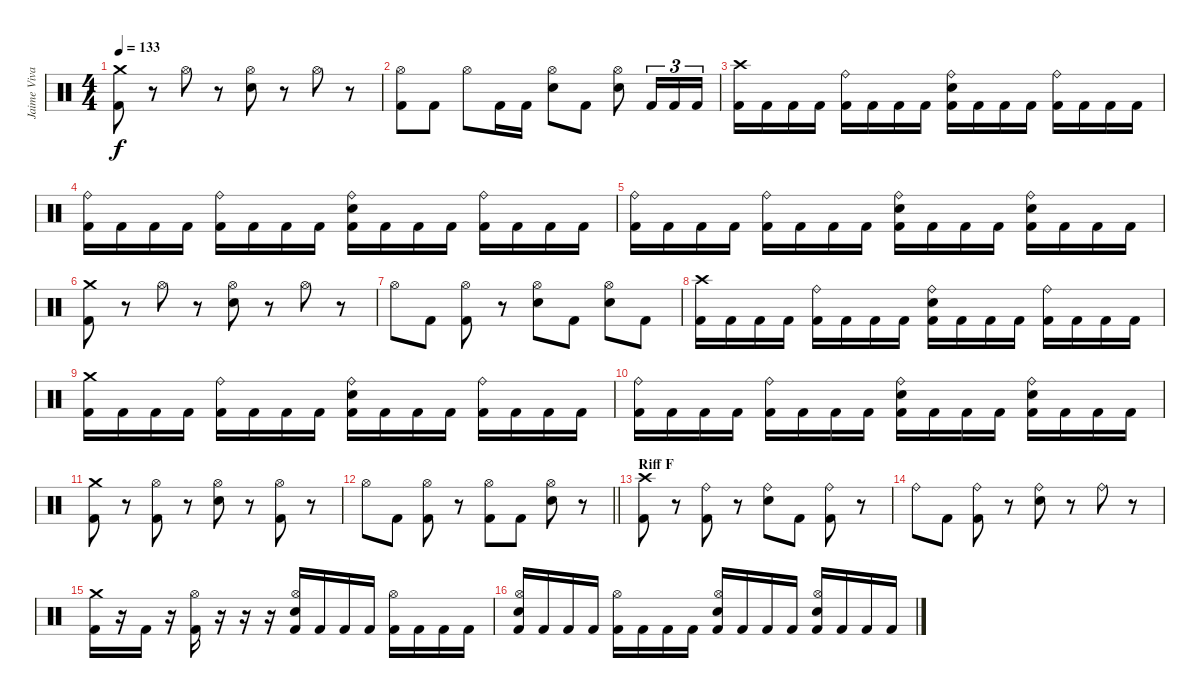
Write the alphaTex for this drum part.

\track ("Jaime Vivar" "Jaime Viva") {instrument percussion}
\staff {score}
\articulation defaults
\ts (4 4)
\tempo 133
\clef neutral
\ks c
("Crash medium (hit)" "Kick (hit) 2").8{dy f} r.8 "Hi-Hat (open)".8 r.8 ("Hi-Hat (open)" "Snare (hit) 2").8 r.8 "Hi-Hat (open)".8 r.8 |
("Hi-Hat (open)" "Kick (hit) 2").8 "Kick (hit) 2".8 "Hi-Hat (open)".8 "Kick (hit) 2".16 "Kick (hit) 2".16 ("Hi-Hat (open)" "Snare (hit) 2").8 "Kick (hit) 2".8 ("Hi-Hat (open)" "Snare (hit) 2").8 "Kick (hit) 2".16{tu (3 2)} "Kick (hit) 2".16{tu (3 2)} "Kick (hit) 2".16{tu (3 2)} |
("Crash high (hit)" "Kick (hit) 2").16 "Kick (hit) 2".16 "Kick (hit) 2".16 "Kick (hit) 2".16 ("Ride (bell)" "Kick (hit) 2").16 "Kick (hit) 2".16 "Kick (hit) 2".16 "Kick (hit) 2".16 ("Ride (bell)" "Snare (hit) 2" "Kick (hit) 2").16 "Kick (hit) 2".16 "Kick (hit) 2".16 "Kick (hit) 2".16 ("Ride (bell)" "Kick (hit) 2").16 "Kick (hit) 2".16 "Kick (hit) 2".16 "Kick (hit) 2".16 |
("Ride (bell)" "Kick (hit) 2").16 "Kick (hit) 2".16 "Kick (hit) 2".16 "Kick (hit) 2".16 ("Ride (bell)" "Kick (hit) 2").16 "Kick (hit) 2".16 "Kick (hit) 2".16 "Kick (hit) 2".16 ("Ride (bell)" "Snare (hit) 2" "Kick (hit) 2").16 "Kick (hit) 2".16 "Kick (hit) 2".16 "Kick (hit) 2".16 ("Ride (bell)" "Kick (hit) 2").16 "Kick (hit) 2".16 "Kick (hit) 2".16 "Kick (hit) 2".16 |
("Ride (bell)" "Kick (hit) 2").16 "Kick (hit) 2".16 "Kick (hit) 2".16 "Kick (hit) 2".16 ("Ride (bell)" "Kick (hit) 2").16 "Kick (hit) 2".16 "Kick (hit) 2".16 "Kick (hit) 2".16 ("Ride (bell)" "Snare (hit) 2" "Kick (hit) 2").16 "Kick (hit) 2".16 "Kick (hit) 2".16 "Kick (hit) 2".16 ("Ride (bell)" "Snare (hit) 2" "Kick (hit) 2").16 "Kick (hit) 2".16 "Kick (hit) 2".16 "Kick (hit) 2".16 |
("Crash medium (hit)" "Kick (hit) 2").8 r.8 "Hi-Hat (open)".8 r.8 ("Hi-Hat (open)" "Snare (hit) 2").8 r.8 "Hi-Hat (open)".8 r.8 |
"Hi-Hat (open)".8 "Kick (hit) 2".8 ("Hi-Hat (open)" "Kick (hit) 2").8 r.8 ("Hi-Hat (open)" "Snare (hit) 2").8 "Kick (hit) 2".8 ("Hi-Hat (open)" "Snare (hit) 2").8 "Kick (hit) 2".8 |
("Crash high (hit)" "Kick (hit) 2").16 "Kick (hit) 2".16 "Kick (hit) 2".16 "Kick (hit) 2".16 ("Ride (bell)" "Kick (hit) 2").16 "Kick (hit) 2".16 "Kick (hit) 2".16 "Kick (hit) 2".16 ("Ride (bell)" "Snare (hit) 2" "Kick (hit) 2").16 "Kick (hit) 2".16 "Kick (hit) 2".16 "Kick (hit) 2".16 ("Ride (bell)" "Kick (hit) 2").16 "Kick (hit) 2".16 "Kick (hit) 2".16 "Kick (hit) 2".16 |
("Crash medium (hit)" "Kick (hit) 2").16 "Kick (hit) 2".16 "Kick (hit) 2".16 "Kick (hit) 2".16 ("Ride (bell)" "Kick (hit) 2").16 "Kick (hit) 2".16 "Kick (hit) 2".16 "Kick (hit) 2".16 ("Ride (bell)" "Snare (hit) 2" "Kick (hit) 2").16 "Kick (hit) 2".16 "Kick (hit) 2".16 "Kick (hit) 2".16 ("Ride (bell)" "Kick (hit) 2").16 "Kick (hit) 2".16 "Kick (hit) 2".16 "Kick (hit) 2".16 |
("Ride (bell)" "Kick (hit) 2").16 "Kick (hit) 2".16 "Kick (hit) 2".16 "Kick (hit) 2".16 ("Ride (bell)" "Kick (hit) 2").16 "Kick (hit) 2".16 "Kick (hit) 2".16 "Kick (hit) 2".16 ("Ride (bell)" "Snare (hit) 2" "Kick (hit) 2").16 "Kick (hit) 2".16 "Kick (hit) 2".16 "Kick (hit) 2".16 ("Ride (bell)" "Snare (hit) 2" "Kick (hit) 2").16 "Kick (hit) 2".16 "Kick (hit) 2".16 "Kick (hit) 2".16 |
("Crash medium (hit)" "Kick (hit) 2").8 r.8 ("Hi-Hat (open)" "Kick (hit) 2").8 r.8 ("Hi-Hat (open)" "Snare (hit) 2").8 r.8 ("Hi-Hat (open)" "Kick (hit) 2").8 r.8 |
\barLineRight lightlight "Hi-Hat (open)".8 "Kick (hit) 2".8
("Hi-Hat (open)" "Kick (hit) 2").8 r.8 ("Hi-Hat (open)" "Kick (hit) 2").8 "Kick (hit) 2".8 ("Hi-Hat (open)" "Snare (hit) 2").8 r.8 |
\section ("" "Riff F")
("Crash high (hit)" "Kick (hit) 2").8 r.8 ("Ride (bell)" "Kick (hit) 2").8 r.8 ("Ride (bell)" "Snare (hit) 2").8 "Kick (hit) 2".8 ("Ride (bell)" "Kick (hit) 2").8 r.8 |
"Ride (bell)".8 "Kick (hit) 2".8 ("Ride (bell)" "Kick (hit) 2").8 r.8 ("Ride (bell)" "Snare (hit) 2").8 r.8 "Ride (bell)".8 r.8 |
("Crash medium (hit)" "Kick (hit) 2").16 r.16 "Kick (hit) 2".16 r.16 ("Hi-Hat (open)" "Kick (hit) 2").16 r.16 r.16 r.16 ("Hi-Hat (open)" "Snare (hit) 2" "Kick (hit) 2").16 "Kick (hit) 2".16 "Kick (hit) 2".16 "Kick (hit) 2".16 ("Hi-Hat (open)" "Kick (hit) 2").16 "Kick (hit) 2".16 "Kick (hit) 2".16 "Kick (hit) 2".16 |
("Hi-Hat (open)" "Snare (hit) 2" "Kick (hit) 2").16 "Kick (hit) 2".16 "Kick (hit) 2".16 "Kick (hit) 2".16 ("Hi-Hat (open)" "Kick (hit) 2").16 "Kick (hit) 2".16 "Kick (hit) 2".16 "Kick (hit) 2".16 ("Hi-Hat (open)" "Snare (hit) 2" "Kick (hit) 2").16 "Kick (hit) 2".16 "Kick (hit) 2".16 "Kick (hit) 2".16 ("Hi-Hat (open)" "Snare (hit) 2" "Kick (hit) 2").16 "Kick (hit) 2".16 "Kick (hit) 2".16 "Kick (hit) 2".16
